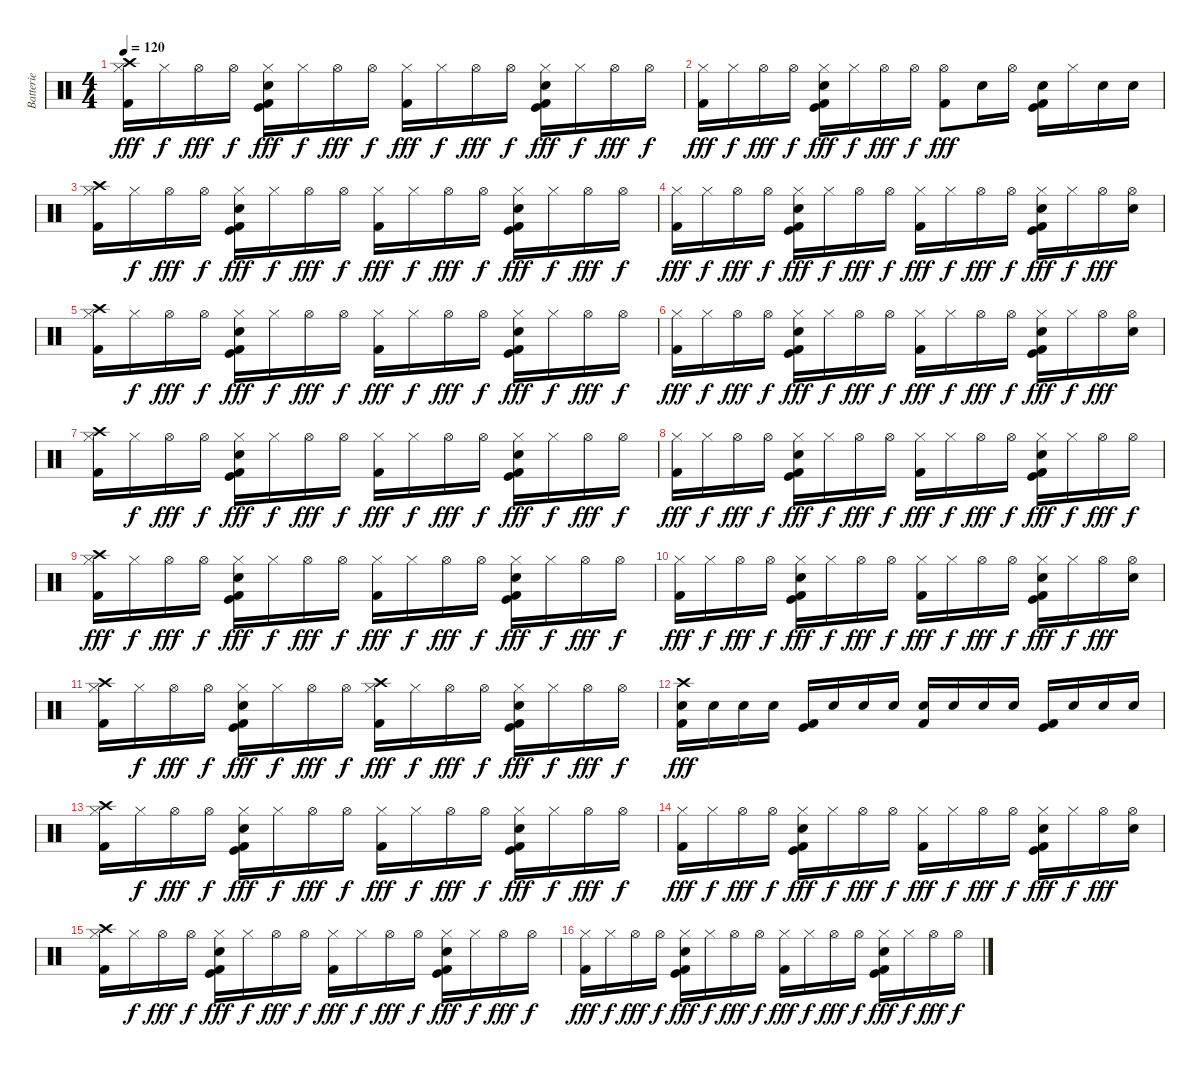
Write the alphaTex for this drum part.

\track ("Batterie" "Batterie") {instrument percussion}
\staff {score}
\articulation defaults
\ts (4 4)
\tempo 120
\clef neutral
\ks c
("Hi-Hat (closed)" "Crash high (hit)" "Kick (hit) 2").16{dy fff} "Hi-Hat (closed)".16{dy f} "Hi-Hat (open)".16{dy fff} "Hi-Hat (open)".16{dy f} ("Hi-Hat (closed)" "Electric Snare (hit)" "Kick (hit)" "Kick (hit) 2").16{dy fff} "Hi-Hat (closed)".16{dy f} "Hi-Hat (open)".16{dy fff} "Hi-Hat (open)".16{dy f} ("Hi-Hat (closed)" "Kick (hit) 2").16{dy fff} "Hi-Hat (closed)".16{dy f} "Hi-Hat (open)".16{dy fff} "Hi-Hat (open)".16{dy f} ("Hi-Hat (closed)" "Electric Snare (hit)" "Kick (hit)" "Kick (hit) 2").16{dy fff} "Hi-Hat (closed)".16{dy f} "Hi-Hat (open)".16{dy fff} "Hi-Hat (open)".16{dy f} |
("Hi-Hat (closed)" "Kick (hit) 2").16{dy fff} "Hi-Hat (closed)".16{dy f} "Hi-Hat (open)".16{dy fff} "Hi-Hat (open)".16{dy f} ("Hi-Hat (closed)" "Electric Snare (hit)" "Kick (hit) 2" "Kick (hit)").16{dy fff} "Hi-Hat (closed)".16{dy f} "Hi-Hat (open)".16{dy fff} "Hi-Hat (open)".16{dy f} ("Hi-Hat (open)" "Kick (hit) 2").8{dy fff} "Electric Snare (hit)".16 "Hi-Hat (open)".16 ("Electric Snare (hit)" "Kick (hit)" "Kick (hit) 2").16 "Hi-Hat (closed)".16 "Electric Snare (hit)".16 "Electric Snare (hit)".16 |
("Hi-Hat (closed)" "Crash high (hit)" "Kick (hit) 2").16 "Hi-Hat (closed)".16{dy f} "Hi-Hat (open)".16{dy fff} "Hi-Hat (open)".16{dy f} ("Hi-Hat (closed)" "Electric Snare (hit)" "Kick (hit)" "Kick (hit) 2").16{dy fff} "Hi-Hat (closed)".16{dy f} "Hi-Hat (open)".16{dy fff} "Hi-Hat (open)".16{dy f} ("Hi-Hat (closed)" "Kick (hit) 2").16{dy fff} "Hi-Hat (closed)".16{dy f} "Hi-Hat (open)".16{dy fff} "Hi-Hat (open)".16{dy f} ("Hi-Hat (closed)" "Electric Snare (hit)" "Kick (hit)" "Kick (hit) 2").16{dy fff} "Hi-Hat (closed)".16{dy f} "Hi-Hat (open)".16{dy fff} "Hi-Hat (open)".16{dy f} |
("Hi-Hat (closed)" "Kick (hit) 2").16{dy fff} "Hi-Hat (closed)".16{dy f} "Hi-Hat (open)".16{dy fff} "Hi-Hat (open)".16{dy f} ("Hi-Hat (closed)" "Electric Snare (hit)" "Kick (hit) 2" "Kick (hit)").16{dy fff} "Hi-Hat (closed)".16{dy f} "Hi-Hat (open)".16{dy fff} "Hi-Hat (open)".16{dy f} ("Hi-Hat (closed)" "Kick (hit) 2").16{dy fff} "Hi-Hat (closed)".16{dy f} "Hi-Hat (open)".16{dy fff} "Hi-Hat (open)".16{dy f} ("Hi-Hat (closed)" "Electric Snare (hit)" "Kick (hit)" "Kick (hit) 2").16{dy fff} "Hi-Hat (closed)".16{dy f} "Hi-Hat (open)".16{dy fff} ("Hi-Hat (open)" "Electric Snare (hit)").16 |
("Hi-Hat (closed)" "Crash high (hit)" "Kick (hit) 2").16 "Hi-Hat (closed)".16{dy f} "Hi-Hat (open)".16{dy fff} "Hi-Hat (open)".16{dy f} ("Hi-Hat (closed)" "Electric Snare (hit)" "Kick (hit)" "Kick (hit) 2").16{dy fff} "Hi-Hat (closed)".16{dy f} "Hi-Hat (open)".16{dy fff} "Hi-Hat (open)".16{dy f} ("Hi-Hat (closed)" "Kick (hit) 2").16{dy fff} "Hi-Hat (closed)".16{dy f} "Hi-Hat (open)".16{dy fff} "Hi-Hat (open)".16{dy f} ("Hi-Hat (closed)" "Electric Snare (hit)" "Kick (hit)" "Kick (hit) 2").16{dy fff} "Hi-Hat (closed)".16{dy f} "Hi-Hat (open)".16{dy fff} "Hi-Hat (open)".16{dy f} |
("Hi-Hat (closed)" "Kick (hit) 2").16{dy fff} "Hi-Hat (closed)".16{dy f} "Hi-Hat (open)".16{dy fff} "Hi-Hat (open)".16{dy f} ("Hi-Hat (closed)" "Electric Snare (hit)" "Kick (hit) 2" "Kick (hit)").16{dy fff} "Hi-Hat (closed)".16{dy f} "Hi-Hat (open)".16{dy fff} "Hi-Hat (open)".16{dy f} ("Hi-Hat (closed)" "Kick (hit) 2").16{dy fff} "Hi-Hat (closed)".16{dy f} "Hi-Hat (open)".16{dy fff} "Hi-Hat (open)".16{dy f} ("Hi-Hat (closed)" "Electric Snare (hit)" "Kick (hit)" "Kick (hit) 2").16{dy fff} "Hi-Hat (closed)".16{dy f} "Hi-Hat (open)".16{dy fff} ("Hi-Hat (open)" "Electric Snare (hit)").16 |
("Hi-Hat (closed)" "Crash high (hit)" "Kick (hit) 2").16 "Hi-Hat (closed)".16{dy f} "Hi-Hat (open)".16{dy fff} "Hi-Hat (open)".16{dy f} ("Hi-Hat (closed)" "Electric Snare (hit)" "Kick (hit)" "Kick (hit) 2").16{dy fff} "Hi-Hat (closed)".16{dy f} "Hi-Hat (open)".16{dy fff} "Hi-Hat (open)".16{dy f} ("Hi-Hat (closed)" "Kick (hit) 2").16{dy fff} "Hi-Hat (closed)".16{dy f} "Hi-Hat (open)".16{dy fff} "Hi-Hat (open)".16{dy f} ("Hi-Hat (closed)" "Electric Snare (hit)" "Kick (hit)" "Kick (hit) 2").16{dy fff} "Hi-Hat (closed)".16{dy f} "Hi-Hat (open)".16{dy fff} "Hi-Hat (open)".16{dy f} |
("Hi-Hat (closed)" "Kick (hit) 2").16{dy fff} "Hi-Hat (closed)".16{dy f} "Hi-Hat (open)".16{dy fff} "Hi-Hat (open)".16{dy f} ("Hi-Hat (closed)" "Electric Snare (hit)" "Kick (hit) 2" "Kick (hit)").16{dy fff} "Hi-Hat (closed)".16{dy f} "Hi-Hat (open)".16{dy fff} "Hi-Hat (open)".16{dy f} ("Hi-Hat (closed)" "Kick (hit) 2").16{dy fff} "Hi-Hat (closed)".16{dy f} "Hi-Hat (open)".16{dy fff} "Hi-Hat (open)".16{dy f} ("Hi-Hat (closed)" "Electric Snare (hit)" "Kick (hit)" "Kick (hit) 2").16{dy fff} "Hi-Hat (closed)".16{dy f} "Hi-Hat (open)".16{dy fff} "Hi-Hat (open)".16{dy f} |
("Hi-Hat (closed)" "Crash high (hit)" "Kick (hit) 2").16{dy fff} "Hi-Hat (closed)".16{dy f} "Hi-Hat (open)".16{dy fff} "Hi-Hat (open)".16{dy f} ("Hi-Hat (closed)" "Electric Snare (hit)" "Kick (hit)" "Kick (hit) 2").16{dy fff} "Hi-Hat (closed)".16{dy f} "Hi-Hat (open)".16{dy fff} "Hi-Hat (open)".16{dy f} ("Hi-Hat (closed)" "Kick (hit) 2").16{dy fff} "Hi-Hat (closed)".16{dy f} "Hi-Hat (open)".16{dy fff} "Hi-Hat (open)".16{dy f} ("Hi-Hat (closed)" "Electric Snare (hit)" "Kick (hit)" "Kick (hit) 2").16{dy fff} "Hi-Hat (closed)".16{dy f} "Hi-Hat (open)".16{dy fff} "Hi-Hat (open)".16{dy f} |
("Hi-Hat (closed)" "Kick (hit) 2").16{dy fff} "Hi-Hat (closed)".16{dy f} "Hi-Hat (open)".16{dy fff} "Hi-Hat (open)".16{dy f} ("Hi-Hat (closed)" "Electric Snare (hit)" "Kick (hit) 2" "Kick (hit)").16{dy fff} "Hi-Hat (closed)".16{dy f} "Hi-Hat (open)".16{dy fff} "Hi-Hat (open)".16{dy f} ("Hi-Hat (closed)" "Kick (hit) 2").16{dy fff} "Hi-Hat (closed)".16{dy f} "Hi-Hat (open)".16{dy fff} "Hi-Hat (open)".16{dy f} ("Hi-Hat (closed)" "Electric Snare (hit)" "Kick (hit)" "Kick (hit) 2").16{dy fff} "Hi-Hat (closed)".16{dy f} "Hi-Hat (open)".16{dy fff} ("Hi-Hat (open)" "Electric Snare (hit)").16 |
("Hi-Hat (closed)" "Crash high (hit)" "Kick (hit) 2").16 "Hi-Hat (closed)".16{dy f} "Hi-Hat (open)".16{dy fff} "Hi-Hat (open)".16{dy f} ("Hi-Hat (closed)" "Electric Snare (hit)" "Kick (hit)" "Kick (hit) 2").16{dy fff} "Hi-Hat (closed)".16{dy f} "Hi-Hat (open)".16{dy fff} "Hi-Hat (open)".16{dy f} ("Hi-Hat (closed)" "Crash high (hit)" "Kick (hit) 2").16{dy fff} "Hi-Hat (closed)".16{dy f} "Hi-Hat (open)".16{dy fff} "Hi-Hat (open)".16{dy f} ("Hi-Hat (closed)" "Electric Snare (hit)" "Kick (hit)" "Kick (hit) 2").16{dy fff} "Hi-Hat (closed)".16{dy f} "Hi-Hat (open)".16{dy fff} "Hi-Hat (open)".16{dy f} |
("Crash high (hit)" "Electric Snare (hit)" "Kick (hit) 2").16{dy fff} "Electric Snare (hit)".16 "Electric Snare (hit)".16 "Electric Snare (hit)".16 ("Kick (hit) 2" "Kick (hit)").16 "Electric Snare (hit)".16 "Electric Snare (hit)".16 "Electric Snare (hit)".16 ("Electric Snare (hit)" "Kick (hit) 2").16 "Electric Snare (hit)".16 "Electric Snare (hit)".16 "Electric Snare (hit)".16 ("Kick (hit) 2" "Kick (hit)").16 "Electric Snare (hit)".16 "Electric Snare (hit)".16 "Electric Snare (hit)".16 |
("Hi-Hat (closed)" "Crash high (hit)" "Kick (hit) 2").16 "Hi-Hat (closed)".16{dy f} "Hi-Hat (open)".16{dy fff} "Hi-Hat (open)".16{dy f} ("Hi-Hat (closed)" "Electric Snare (hit)" "Kick (hit)" "Kick (hit) 2").16{dy fff} "Hi-Hat (closed)".16{dy f} "Hi-Hat (open)".16{dy fff} "Hi-Hat (open)".16{dy f} ("Hi-Hat (closed)" "Kick (hit) 2").16{dy fff} "Hi-Hat (closed)".16{dy f} "Hi-Hat (open)".16{dy fff} "Hi-Hat (open)".16{dy f} ("Hi-Hat (closed)" "Electric Snare (hit)" "Kick (hit)" "Kick (hit) 2").16{dy fff} "Hi-Hat (closed)".16{dy f} "Hi-Hat (open)".16{dy fff} "Hi-Hat (open)".16{dy f} |
("Hi-Hat (closed)" "Kick (hit) 2").16{dy fff} "Hi-Hat (closed)".16{dy f} "Hi-Hat (open)".16{dy fff} "Hi-Hat (open)".16{dy f} ("Hi-Hat (closed)" "Electric Snare (hit)" "Kick (hit) 2" "Kick (hit)").16{dy fff} "Hi-Hat (closed)".16{dy f} "Hi-Hat (open)".16{dy fff} "Hi-Hat (open)".16{dy f} ("Hi-Hat (closed)" "Kick (hit) 2").16{dy fff} "Hi-Hat (closed)".16{dy f} "Hi-Hat (open)".16{dy fff} "Hi-Hat (open)".16{dy f} ("Hi-Hat (closed)" "Electric Snare (hit)" "Kick (hit)" "Kick (hit) 2").16{dy fff} "Hi-Hat (closed)".16{dy f} "Hi-Hat (open)".16{dy fff} ("Hi-Hat (open)" "Electric Snare (hit)").16 |
("Hi-Hat (closed)" "Crash high (hit)" "Kick (hit) 2").16 "Hi-Hat (closed)".16{dy f} "Hi-Hat (open)".16{dy fff} "Hi-Hat (open)".16{dy f} ("Hi-Hat (closed)" "Electric Snare (hit)" "Kick (hit)" "Kick (hit) 2").16{dy fff} "Hi-Hat (closed)".16{dy f} "Hi-Hat (open)".16{dy fff} "Hi-Hat (open)".16{dy f} ("Hi-Hat (closed)" "Kick (hit) 2").16{dy fff} "Hi-Hat (closed)".16{dy f} "Hi-Hat (open)".16{dy fff} "Hi-Hat (open)".16{dy f} ("Hi-Hat (closed)" "Electric Snare (hit)" "Kick (hit)" "Kick (hit) 2").16{dy fff} "Hi-Hat (closed)".16{dy f} "Hi-Hat (open)".16{dy fff} "Hi-Hat (open)".16{dy f} |
("Hi-Hat (closed)" "Kick (hit) 2").16{dy fff} "Hi-Hat (closed)".16{dy f} "Hi-Hat (open)".16{dy fff} "Hi-Hat (open)".16{dy f} ("Hi-Hat (closed)" "Electric Snare (hit)" "Kick (hit) 2" "Kick (hit)").16{dy fff} "Hi-Hat (closed)".16{dy f} "Hi-Hat (open)".16{dy fff} "Hi-Hat (open)".16{dy f} ("Hi-Hat (closed)" "Kick (hit) 2").16{dy fff} "Hi-Hat (closed)".16{dy f} "Hi-Hat (open)".16{dy fff} "Hi-Hat (open)".16{dy f} ("Hi-Hat (closed)" "Electric Snare (hit)" "Kick (hit)" "Kick (hit) 2").16{dy fff} "Hi-Hat (closed)".16{dy f} "Hi-Hat (open)".16{dy fff} "Hi-Hat (open)".16{dy f}
